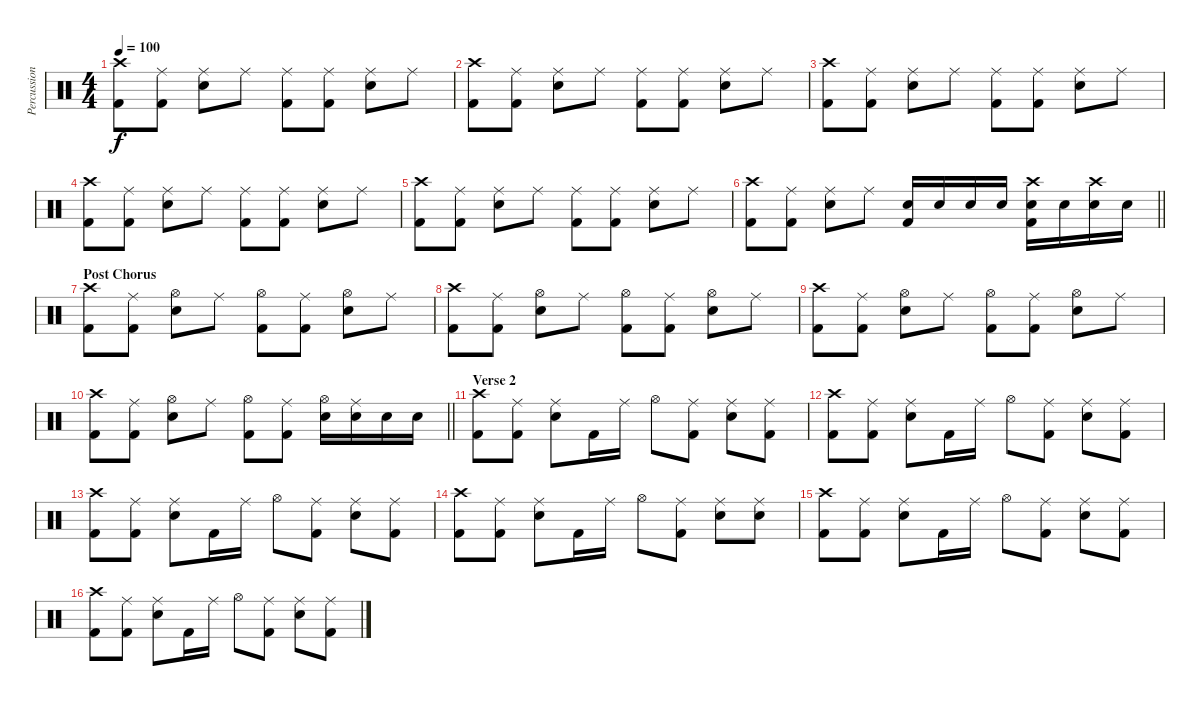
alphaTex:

\track ("Percussion" "Percussion") {instrument percussion}
\staff {score}
\articulation defaults
\ts (4 4)
\tempo 100
\clef neutral
\ks c
("Crash high (hit)" "Kick (hit) 2").8{dy f} ("Ride (middle)" "Kick (hit) 2").8 ("Ride (middle)" "Snare (hit) 2").8 "Ride (middle)".8 ("Ride (middle)" "Kick (hit) 2").8 ("Ride (middle)" "Kick (hit) 2").8 ("Ride (middle)" "Snare (hit) 2").8 "Ride (middle)".8 |
("Crash high (hit)" "Kick (hit) 2").8 ("Ride (middle)" "Kick (hit) 2").8 ("Ride (middle)" "Snare (hit) 2").8 "Ride (middle)".8 ("Ride (middle)" "Kick (hit) 2").8 ("Ride (middle)" "Kick (hit) 2").8 ("Ride (middle)" "Snare (hit) 2").8 "Ride (middle)".8 |
("Crash high (hit)" "Kick (hit) 2").8 ("Ride (middle)" "Kick (hit) 2").8 ("Ride (middle)" "Snare (hit) 2").8 "Ride (middle)".8 ("Ride (middle)" "Kick (hit) 2").8 ("Ride (middle)" "Kick (hit) 2").8 ("Ride (middle)" "Snare (hit) 2").8 "Ride (middle)".8 |
("Crash high (hit)" "Kick (hit) 2").8 ("Ride (middle)" "Kick (hit) 2").8 ("Ride (middle)" "Snare (hit) 2").8 "Ride (middle)".8 ("Ride (middle)" "Kick (hit) 2").8 ("Ride (middle)" "Kick (hit) 2").8 ("Ride (middle)" "Snare (hit) 2").8 "Ride (middle)".8 |
("Crash high (hit)" "Kick (hit) 2").8 ("Ride (middle)" "Kick (hit) 2").8 ("Ride (middle)" "Snare (hit) 2").8 "Ride (middle)".8 ("Ride (middle)" "Kick (hit) 2").8 ("Ride (middle)" "Kick (hit) 2").8 ("Ride (middle)" "Snare (hit) 2").8 "Ride (middle)".8 |
\barLineRight lightlight
("Crash high (hit)" "Kick (hit) 2").8 ("Ride (middle)" "Kick (hit) 2").8 ("Ride (middle)" "Snare (hit) 2").8 "Ride (middle)".8 ("Snare (hit) 2" "Kick (hit) 2").16 "Snare (hit) 2".16 "Snare (hit) 2".16 "Snare (hit) 2".16 ("Snare (hit) 2" "Kick (hit) 2" "Crash high (hit)").16 "Snare (hit) 2".16 ("Snare (hit) 2" "Crash high (hit)").16 "Snare (hit) 2".16 |
\section ("" "Post Chorus")
("Kick (hit) 2" "Crash high (hit)").8 ("Ride (middle)" "Kick (hit) 2").8 ("Hi-Hat (open)" "Snare (hit) 2").8 "Ride (middle)".8 ("Hi-Hat (open)" "Kick (hit) 2").8 ("Ride (middle)" "Kick (hit) 2").8 ("Hi-Hat (open)" "Snare (hit) 2").8 "Ride (middle)".8 |
("Crash high (hit)" "Kick (hit) 2").8 ("Ride (middle)" "Kick (hit) 2").8 ("Hi-Hat (open)" "Snare (hit) 2").8 "Ride (middle)".8 ("Hi-Hat (open)" "Kick (hit) 2").8 ("Ride (middle)" "Kick (hit) 2").8 ("Hi-Hat (open)" "Snare (hit) 2").8 "Ride (middle)".8 |
("Crash high (hit)" "Kick (hit) 2").8 ("Ride (middle)" "Kick (hit) 2").8 ("Hi-Hat (open)" "Snare (hit) 2").8 "Ride (middle)".8 ("Hi-Hat (open)" "Kick (hit) 2").8 ("Ride (middle)" "Kick (hit) 2").8 ("Hi-Hat (open)" "Snare (hit) 2").8 "Ride (middle)".8 |
\barLineRight lightlight
("Crash high (hit)" "Kick (hit) 2").8 ("Ride (middle)" "Kick (hit) 2").8 ("Hi-Hat (open)" "Snare (hit) 2").8 "Ride (middle)".8 ("Hi-Hat (open)" "Kick (hit) 2").8 ("Ride (middle)" "Kick (hit) 2").8 ("Hi-Hat (open)" "Snare (hit) 2").16 ("Ride (middle)" "Snare (hit) 2").16 "Snare (hit) 2".16 "Snare (hit) 2".16 |
\section ("" "Verse 2")
("Kick (hit) 2" "Crash high (hit)").8 ("Kick (hit) 2" "Ride (middle)").8 ("Snare (hit) 2" "Ride (middle)").8 "Kick (hit) 2".16 "Ride (middle)".16 "Hi-Hat (open)".8 ("Kick (hit) 2" "Ride (middle)").8 ("Snare (hit) 2" "Ride (middle)").8 ("Kick (hit) 2" "Ride (middle)").8 |
("Kick (hit) 2" "Crash high (hit)").8 ("Kick (hit) 2" "Ride (middle)").8 ("Snare (hit) 2" "Ride (middle)").8 "Kick (hit) 2".16 "Ride (middle)".16 "Hi-Hat (open)".8 ("Kick (hit) 2" "Ride (middle)").8 ("Snare (hit) 2" "Ride (middle)").8 ("Kick (hit) 2" "Ride (middle)").8 |
("Kick (hit) 2" "Crash high (hit)").8 ("Kick (hit) 2" "Ride (middle)").8 ("Snare (hit) 2" "Ride (middle)").8 "Kick (hit) 2".16 "Ride (middle)".16 "Hi-Hat (open)".8 ("Kick (hit) 2" "Ride (middle)").8 ("Snare (hit) 2" "Ride (middle)").8 ("Kick (hit) 2" "Ride (middle)").8 |
("Kick (hit) 2" "Crash high (hit)").8 ("Kick (hit) 2" "Ride (middle)").8 ("Snare (hit) 2" "Ride (middle)").8 "Kick (hit) 2".16 "Ride (middle)".16 "Hi-Hat (open)".8 ("Kick (hit) 2" "Ride (middle)").8 ("Snare (hit) 2" "Ride (middle)").8 ("Snare (hit) 2" "Ride (middle)").8 |
("Kick (hit) 2" "Crash high (hit)").8 ("Kick (hit) 2" "Ride (middle)").8 ("Snare (hit) 2" "Ride (middle)").8 "Kick (hit) 2".16 "Ride (middle)".16 "Hi-Hat (open)".8 ("Kick (hit) 2" "Ride (middle)").8 ("Snare (hit) 2" "Ride (middle)").8 ("Kick (hit) 2" "Ride (middle)").8 |
("Kick (hit) 2" "Crash high (hit)").8 ("Kick (hit) 2" "Ride (middle)").8 ("Snare (hit) 2" "Ride (middle)").8 "Kick (hit) 2".16 "Ride (middle)".16 "Hi-Hat (open)".8 ("Kick (hit) 2" "Ride (middle)").8 ("Snare (hit) 2" "Ride (middle)").8 ("Kick (hit) 2" "Ride (middle)").8
